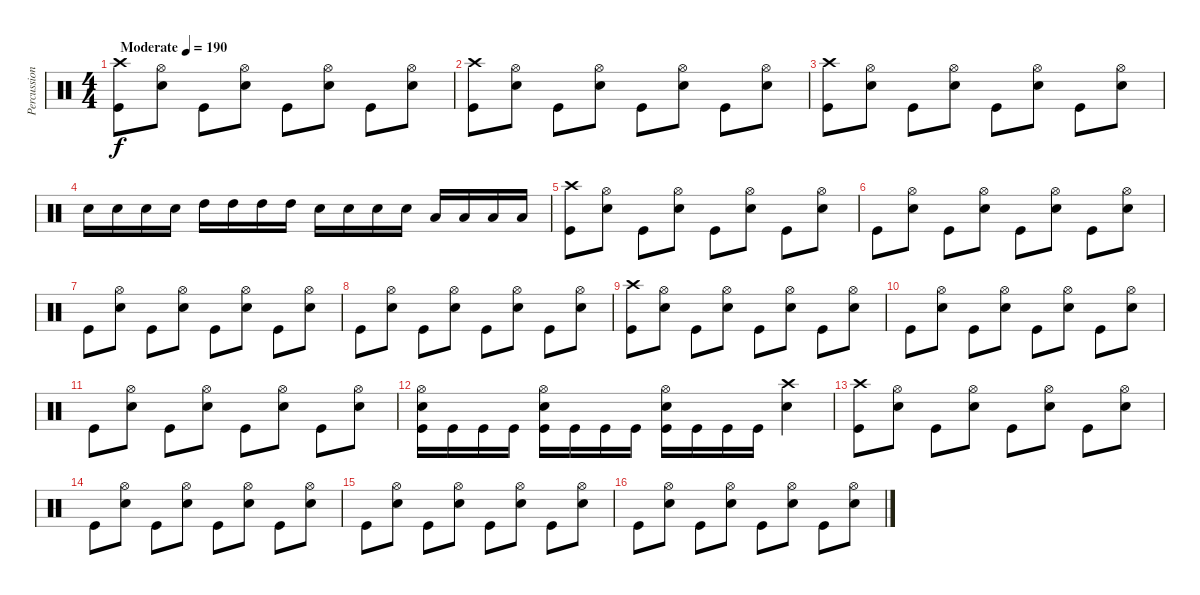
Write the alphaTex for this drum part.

\track ("Percussion" "Percussion") {instrument percussion}
\staff {score}
\articulation defaults
\ts (4 4)
\tempo (190 "Moderate")
\clef neutral
\ks c
("Kick (hit)" "Crash high (hit)").8{dy f} ("Electric Snare (hit)" "Hi-Hat (open)").8 "Kick (hit)".8 ("Electric Snare (hit)" "Hi-Hat (open)").8 "Kick (hit)".8 ("Electric Snare (hit)" "Hi-Hat (open)").8 "Kick (hit)".8 ("Electric Snare (hit)" "Hi-Hat (open)").8 |
("Kick (hit)" "Crash high (hit)").8 ("Electric Snare (hit)" "Hi-Hat (open)").8 "Kick (hit)".8 ("Electric Snare (hit)" "Hi-Hat (open)").8 "Kick (hit)".8 ("Electric Snare (hit)" "Hi-Hat (open)").8 "Kick (hit)".8 ("Electric Snare (hit)" "Hi-Hat (open)").8 |
("Kick (hit)" "Crash high (hit)").8 ("Electric Snare (hit)" "Hi-Hat (open)").8 "Kick (hit)".8 ("Electric Snare (hit)" "Hi-Hat (open)").8 "Kick (hit)".8 ("Electric Snare (hit)" "Hi-Hat (open)").8 "Kick (hit)".8 ("Electric Snare (hit)" "Hi-Hat (open)").8 |
"Electric Snare (hit)".16 "Electric Snare (hit)".16 "Electric Snare (hit)".16 "Electric Snare (hit)".16 "High Tom (hit)".16 "High Tom (hit)".16 "High Tom (hit)".16 "High Tom (hit)".16 "Electric Snare (hit)".16 "Electric Snare (hit)".16 "Electric Snare (hit)".16 "Electric Snare (hit)".16 "Low Tom (hit)".16 "Low Tom (hit)".16 "Low Tom (hit)".16 "Low Tom (hit)".16 |
("Kick (hit)" "Crash high (hit)").8 ("Electric Snare (hit)" "Hi-Hat (open)").8 "Kick (hit)".8 ("Electric Snare (hit)" "Hi-Hat (open)").8 "Kick (hit)".8 ("Electric Snare (hit)" "Hi-Hat (open)").8 "Kick (hit)".8 ("Electric Snare (hit)" "Hi-Hat (open)").8 |
"Kick (hit)".8 ("Electric Snare (hit)" "Hi-Hat (open)").8 "Kick (hit)".8 ("Electric Snare (hit)" "Hi-Hat (open)").8 "Kick (hit)".8 ("Electric Snare (hit)" "Hi-Hat (open)").8 "Kick (hit)".8 ("Electric Snare (hit)" "Hi-Hat (open)").8 |
"Kick (hit)".8 ("Electric Snare (hit)" "Hi-Hat (open)").8 "Kick (hit)".8 ("Electric Snare (hit)" "Hi-Hat (open)").8 "Kick (hit)".8 ("Electric Snare (hit)" "Hi-Hat (open)").8 "Kick (hit)".8 ("Electric Snare (hit)" "Hi-Hat (open)").8 |
"Kick (hit)".8 ("Electric Snare (hit)" "Hi-Hat (open)").8 "Kick (hit)".8 ("Electric Snare (hit)" "Hi-Hat (open)").8 "Kick (hit)".8 ("Electric Snare (hit)" "Hi-Hat (open)").8 "Kick (hit)".8 ("Electric Snare (hit)" "Hi-Hat (open)").8 |
("Kick (hit)" "Crash high (hit)").8 ("Electric Snare (hit)" "Hi-Hat (open)").8 "Kick (hit)".8 ("Electric Snare (hit)" "Hi-Hat (open)").8 "Kick (hit)".8 ("Electric Snare (hit)" "Hi-Hat (open)").8 "Kick (hit)".8 ("Electric Snare (hit)" "Hi-Hat (open)").8 |
"Kick (hit)".8 ("Electric Snare (hit)" "Hi-Hat (open)").8 "Kick (hit)".8 ("Electric Snare (hit)" "Hi-Hat (open)").8 "Kick (hit)".8 ("Electric Snare (hit)" "Hi-Hat (open)").8 "Kick (hit)".8 ("Electric Snare (hit)" "Hi-Hat (open)").8 |
"Kick (hit)".8 ("Electric Snare (hit)" "Hi-Hat (open)").8 "Kick (hit)".8 ("Electric Snare (hit)" "Hi-Hat (open)").8 "Kick (hit)".8 ("Electric Snare (hit)" "Hi-Hat (open)").8 "Kick (hit)".8 ("Electric Snare (hit)" "Hi-Hat (open)").8 |
("Kick (hit)" "Electric Snare (hit)" "Hi-Hat (open)").16 "Kick (hit)".16 "Kick (hit)".16 "Kick (hit)".16 ("Kick (hit)" "Electric Snare (hit)" "Hi-Hat (open)").16 "Kick (hit)".16 "Kick (hit)".16 "Kick (hit)".16 ("Kick (hit)" "Electric Snare (hit)" "Hi-Hat (open)").16 "Kick (hit)".16 "Kick (hit)".16 "Kick (hit)".16 ("Electric Snare (hit)" "Crash high (hit)").4 |
("Kick (hit)" "Crash high (hit)").8 ("Electric Snare (hit)" "Hi-Hat (open)").8 "Kick (hit)".8 ("Electric Snare (hit)" "Hi-Hat (open)").8 "Kick (hit)".8 ("Electric Snare (hit)" "Hi-Hat (open)").8 "Kick (hit)".8 ("Electric Snare (hit)" "Hi-Hat (open)").8 |
"Kick (hit)".8 ("Electric Snare (hit)" "Hi-Hat (open)").8 "Kick (hit)".8 ("Electric Snare (hit)" "Hi-Hat (open)").8 "Kick (hit)".8 ("Electric Snare (hit)" "Hi-Hat (open)").8 "Kick (hit)".8 ("Electric Snare (hit)" "Hi-Hat (open)").8 |
"Kick (hit)".8 ("Electric Snare (hit)" "Hi-Hat (open)").8 "Kick (hit)".8 ("Electric Snare (hit)" "Hi-Hat (open)").8 "Kick (hit)".8 ("Electric Snare (hit)" "Hi-Hat (open)").8 "Kick (hit)".8 ("Electric Snare (hit)" "Hi-Hat (open)").8 |
"Kick (hit)".8 ("Electric Snare (hit)" "Hi-Hat (open)").8 "Kick (hit)".8 ("Electric Snare (hit)" "Hi-Hat (open)").8 "Kick (hit)".8 ("Electric Snare (hit)" "Hi-Hat (open)").8 "Kick (hit)".8 ("Electric Snare (hit)" "Hi-Hat (open)").8
